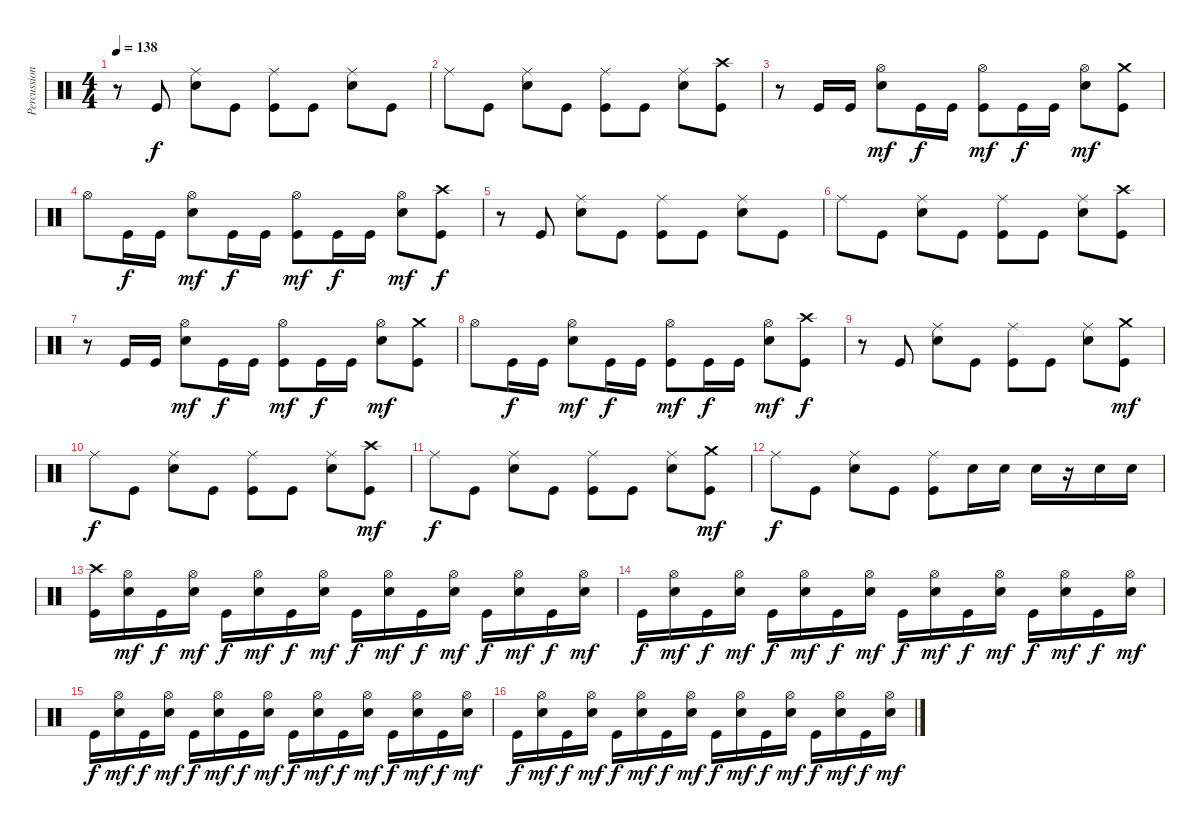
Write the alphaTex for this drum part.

\track ("Percussions" "Percussion") {instrument percussion}
\staff {score}
\articulation defaults
\ts (4 4)
\tempo 138
\clef neutral
\ks c
r.8{dy f} "Kick (hit)".8 ("Electric Snare (hit)" "Ride (middle)").8 "Kick (hit)".8 ("Kick (hit)" "Ride (middle)").8 "Kick (hit)".8 ("Electric Snare (hit)" "Ride (middle)").8 "Kick (hit)".8 |
"Ride (middle)".8 "Kick (hit)".8 ("Electric Snare (hit)" "Ride (middle)").8 "Kick (hit)".8 ("Kick (hit)" "Ride (middle)").8 "Kick (hit)".8 ("Electric Snare (hit)" "Ride (middle)").8 ("Kick (hit)" "Crash high (hit)").8 |
r.8 "Kick (hit)".16 "Kick (hit)".16 ("Electric Snare (hit)" "Hi-Hat (open)").8{dy mf} "Kick (hit)".16{dy f} "Kick (hit)".16 ("Kick (hit)" "Hi-Hat (open)").8{dy mf} "Kick (hit)".16{dy f} "Kick (hit)".16 ("Electric Snare (hit)" "Hi-Hat (open)").8{dy mf} ("Kick (hit)" "Crash medium (hit)").8 |
"Hi-Hat (open)".8 "Kick (hit)".16{dy f} "Kick (hit)".16 ("Electric Snare (hit)" "Hi-Hat (open)").8{dy mf} "Kick (hit)".16{dy f} "Kick (hit)".16 ("Kick (hit)" "Hi-Hat (open)").8{dy mf} "Kick (hit)".16{dy f} "Kick (hit)".16 ("Electric Snare (hit)" "Hi-Hat (open)").8{dy mf} ("Kick (hit)" "Crash high (hit)").8{dy f} |
r.8 "Kick (hit)".8 ("Electric Snare (hit)" "Ride (middle)").8 "Kick (hit)".8 ("Kick (hit)" "Ride (middle)").8 "Kick (hit)".8 ("Electric Snare (hit)" "Ride (middle)").8 "Kick (hit)".8 |
"Ride (middle)".8 "Kick (hit)".8 ("Electric Snare (hit)" "Ride (middle)").8 "Kick (hit)".8 ("Kick (hit)" "Ride (middle)").8 "Kick (hit)".8 ("Electric Snare (hit)" "Ride (middle)").8 ("Kick (hit)" "Crash high (hit)").8 |
r.8 "Kick (hit)".16 "Kick (hit)".16 ("Electric Snare (hit)" "Hi-Hat (open)").8{dy mf} "Kick (hit)".16{dy f} "Kick (hit)".16 ("Kick (hit)" "Hi-Hat (open)").8{dy mf} "Kick (hit)".16{dy f} "Kick (hit)".16 ("Electric Snare (hit)" "Hi-Hat (open)").8{dy mf} ("Kick (hit)" "Crash medium (hit)").8 |
"Hi-Hat (open)".8 "Kick (hit)".16{dy f} "Kick (hit)".16 ("Electric Snare (hit)" "Hi-Hat (open)").8{dy mf} "Kick (hit)".16{dy f} "Kick (hit)".16 ("Kick (hit)" "Hi-Hat (open)").8{dy mf} "Kick (hit)".16{dy f} "Kick (hit)".16 ("Electric Snare (hit)" "Hi-Hat (open)").8{dy mf} ("Kick (hit)" "Crash high (hit)").8{dy f} |
r.8 "Kick (hit)".8 ("Electric Snare (hit)" "Ride (middle)").8 "Kick (hit)".8 ("Kick (hit)" "Ride (middle)").8 "Kick (hit)".8 ("Electric Snare (hit)" "Ride (middle)").8 ("Kick (hit)" "Crash medium (hit)").8{dy mf} |
"Ride (middle)".8{dy f} "Kick (hit)".8 ("Electric Snare (hit)" "Ride (middle)").8 "Kick (hit)".8 ("Kick (hit)" "Ride (middle)").8 "Kick (hit)".8 ("Electric Snare (hit)" "Ride (middle)").8 ("Kick (hit)" "Crash high (hit)").8{dy mf} |
"Ride (middle)".8{dy f} "Kick (hit)".8 ("Electric Snare (hit)" "Ride (middle)").8 "Kick (hit)".8 ("Kick (hit)" "Ride (middle)").8 "Kick (hit)".8 ("Electric Snare (hit)" "Ride (middle)").8 ("Kick (hit)" "Crash medium (hit)").8{dy mf} |
"Ride (middle)".8{dy f} "Kick (hit)".8 ("Electric Snare (hit)" "Ride (middle)").8 "Kick (hit)".8 ("Kick (hit)" "Ride (middle)").8 "Electric Snare (hit)".16 "Electric Snare (hit)".16 "Electric Snare (hit)".16 r.16 "Electric Snare (hit)".16 "Electric Snare (hit)".16 |
("Kick (hit)" "Crash high (hit)").16 ("Electric Snare (hit)" "Hi-Hat (open)").16{dy mf} "Kick (hit)".16{dy f} ("Electric Snare (hit)" "Hi-Hat (open)").16{dy mf} "Kick (hit)".16{dy f} ("Electric Snare (hit)" "Hi-Hat (open)").16{dy mf} "Kick (hit)".16{dy f} ("Electric Snare (hit)" "Hi-Hat (open)").16{dy mf} "Kick (hit)".16{dy f} ("Electric Snare (hit)" "Hi-Hat (open)").16{dy mf} "Kick (hit)".16{dy f} ("Electric Snare (hit)" "Hi-Hat (open)").16{dy mf} "Kick (hit)".16{dy f} ("Electric Snare (hit)" "Hi-Hat (open)").16{dy mf} "Kick (hit)".16{dy f} ("Electric Snare (hit)" "Hi-Hat (open)").16{dy mf} |
"Kick (hit)".16{dy f} ("Electric Snare (hit)" "Hi-Hat (open)").16{dy mf} "Kick (hit)".16{dy f} ("Electric Snare (hit)" "Hi-Hat (open)").16{dy mf} "Kick (hit)".16{dy f} ("Electric Snare (hit)" "Hi-Hat (open)").16{dy mf} "Kick (hit)".16{dy f} ("Electric Snare (hit)" "Hi-Hat (open)").16{dy mf} "Kick (hit)".16{dy f} ("Electric Snare (hit)" "Hi-Hat (open)").16{dy mf} "Kick (hit)".16{dy f} ("Electric Snare (hit)" "Hi-Hat (open)").16{dy mf} "Kick (hit)".16{dy f} ("Electric Snare (hit)" "Hi-Hat (open)").16{dy mf} "Kick (hit)".16{dy f} ("Electric Snare (hit)" "Hi-Hat (open)").16{dy mf} |
"Kick (hit)".16{dy f} ("Electric Snare (hit)" "Hi-Hat (open)").16{dy mf} "Kick (hit)".16{dy f} ("Electric Snare (hit)" "Hi-Hat (open)").16{dy mf} "Kick (hit)".16{dy f} ("Electric Snare (hit)" "Hi-Hat (open)").16{dy mf} "Kick (hit)".16{dy f} ("Electric Snare (hit)" "Hi-Hat (open)").16{dy mf} "Kick (hit)".16{dy f} ("Electric Snare (hit)" "Hi-Hat (open)").16{dy mf} "Kick (hit)".16{dy f} ("Electric Snare (hit)" "Hi-Hat (open)").16{dy mf} "Kick (hit)".16{dy f} ("Electric Snare (hit)" "Hi-Hat (open)").16{dy mf} "Kick (hit)".16{dy f} ("Electric Snare (hit)" "Hi-Hat (open)").16{dy mf} |
"Kick (hit)".16{dy f} ("Electric Snare (hit)" "Hi-Hat (open)").16{dy mf} "Kick (hit)".16{dy f} ("Electric Snare (hit)" "Hi-Hat (open)").16{dy mf} "Kick (hit)".16{dy f} ("Electric Snare (hit)" "Hi-Hat (open)").16{dy mf} "Kick (hit)".16{dy f} ("Electric Snare (hit)" "Hi-Hat (open)").16{dy mf} "Kick (hit)".16{dy f} ("Electric Snare (hit)" "Hi-Hat (open)").16{dy mf} "Kick (hit)".16{dy f} ("Electric Snare (hit)" "Hi-Hat (open)").16{dy mf} "Kick (hit)".16{dy f} ("Electric Snare (hit)" "Hi-Hat (open)").16{dy mf} "Kick (hit)".16{dy f} ("Electric Snare (hit)" "Hi-Hat (open)").16{dy mf}
